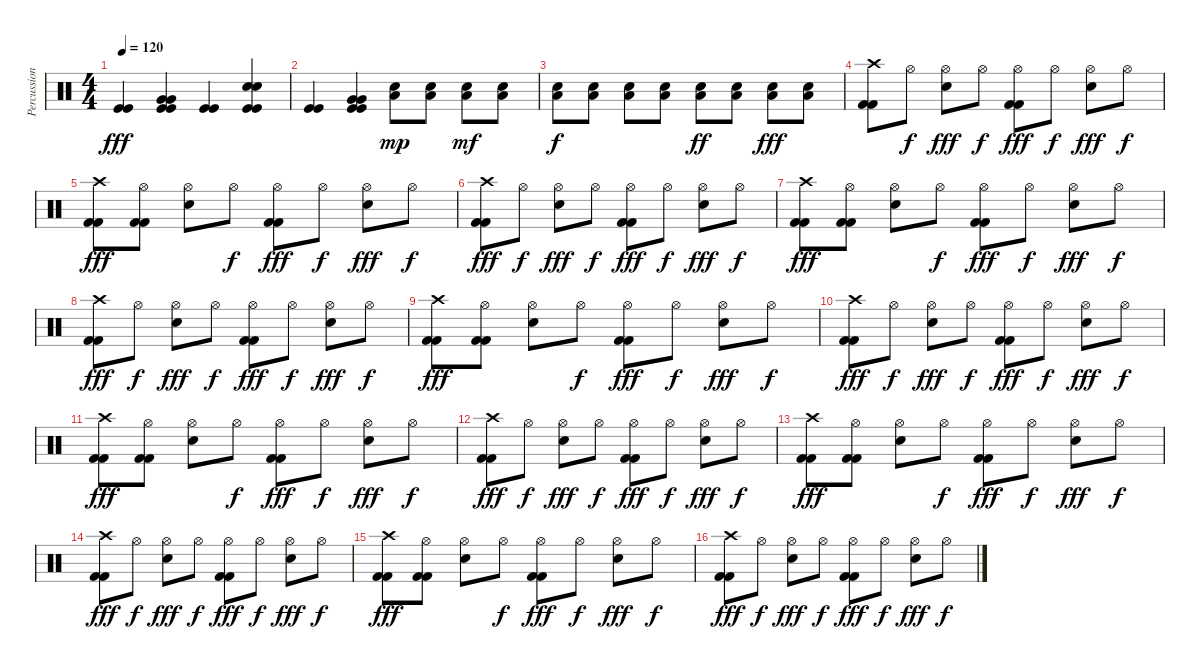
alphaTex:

\track ("Percussion" "Percussion") {instrument percussion}
\staff {score}
\articulation defaults
\ts (4 4)
\tempo 120
\clef neutral
\ks c
("Kick (hit)" "Kick (hit)").4{dy fff} ("Kick (hit)" "Kick (hit)" "Very Low Tom (hit)" "Very Low Tom (hit)").4 ("Kick (hit)" "Kick (hit)").4 ("Kick (hit)" "Kick (hit)" "Snare (hit) 2" "Snare (hit) 2").4 |
("Kick (hit)" "Kick (hit)").4 ("Kick (hit)" "Kick (hit)" "Very Low Tom (hit)" "Very Low Tom (hit)").4 ("Snare (hit) 2" "Low Floor Tom (hit)").8{dy mp} ("Snare (hit) 2" "Low Floor Tom (hit)").8 ("Snare (hit) 2" "Low Floor Tom (hit)").8{dy mf} ("Snare (hit) 2" "Low Floor Tom (hit)").8 |
("Snare (hit) 2" "Low Floor Tom (hit)").8{dy f} ("Snare (hit) 2" "Low Floor Tom (hit)").8 ("Snare (hit) 2" "Low Floor Tom (hit)").8 ("Snare (hit) 2" "Low Floor Tom (hit)").8 ("Snare (hit) 2" "Low Floor Tom (hit)").8{dy ff} ("Snare (hit) 2" "Low Floor Tom (hit)").8 ("Snare (hit) 2" "Low Floor Tom (hit)").8{dy fff} ("Snare (hit) 2" "Low Floor Tom (hit)").8 |
("Crash high (hit)" "Kick (hit) 2" "Kick (hit) 2").8 "Hi-Hat (open)".8{dy f} ("Hi-Hat (open)" "Snare (hit) 2").8{dy fff} "Hi-Hat (open)".8{dy f} ("Hi-Hat (open)" "Kick (hit) 2" "Kick (hit) 2").8{dy fff} "Hi-Hat (open)".8{dy f} ("Hi-Hat (open)" "Snare (hit) 2").8{dy fff} "Hi-Hat (open)".8{dy f} |
("Crash high (hit)" "Kick (hit) 2" "Kick (hit) 2").8{dy fff} ("Hi-Hat (open)" "Kick (hit) 2" "Kick (hit) 2").8 ("Hi-Hat (open)" "Snare (hit) 2").8 "Hi-Hat (open)".8{dy f} ("Hi-Hat (open)" "Kick (hit) 2" "Kick (hit) 2").8{dy fff} "Hi-Hat (open)".8{dy f} ("Hi-Hat (open)" "Snare (hit) 2").8{dy fff} "Hi-Hat (open)".8{dy f} |
("Crash high (hit)" "Kick (hit) 2" "Kick (hit) 2").8{dy fff} "Hi-Hat (open)".8{dy f} ("Hi-Hat (open)" "Snare (hit) 2").8{dy fff} "Hi-Hat (open)".8{dy f} ("Hi-Hat (open)" "Kick (hit) 2" "Kick (hit) 2").8{dy fff} "Hi-Hat (open)".8{dy f} ("Hi-Hat (open)" "Snare (hit) 2").8{dy fff} "Hi-Hat (open)".8{dy f} |
("Crash high (hit)" "Kick (hit) 2" "Kick (hit) 2").8{dy fff} ("Hi-Hat (open)" "Kick (hit) 2" "Kick (hit) 2").8 ("Hi-Hat (open)" "Snare (hit) 2").8 "Hi-Hat (open)".8{dy f} ("Hi-Hat (open)" "Kick (hit) 2" "Kick (hit) 2").8{dy fff} "Hi-Hat (open)".8{dy f} ("Hi-Hat (open)" "Snare (hit) 2").8{dy fff} "Hi-Hat (open)".8{dy f} |
("Crash high (hit)" "Kick (hit) 2" "Kick (hit) 2").8{dy fff} "Hi-Hat (open)".8{dy f} ("Hi-Hat (open)" "Snare (hit) 2").8{dy fff} "Hi-Hat (open)".8{dy f} ("Hi-Hat (open)" "Kick (hit) 2" "Kick (hit) 2").8{dy fff} "Hi-Hat (open)".8{dy f} ("Hi-Hat (open)" "Snare (hit) 2").8{dy fff} "Hi-Hat (open)".8{dy f} |
("Crash high (hit)" "Kick (hit) 2" "Kick (hit) 2").8{dy fff} ("Hi-Hat (open)" "Kick (hit) 2" "Kick (hit) 2").8 ("Hi-Hat (open)" "Snare (hit) 2").8 "Hi-Hat (open)".8{dy f} ("Hi-Hat (open)" "Kick (hit) 2" "Kick (hit) 2").8{dy fff} "Hi-Hat (open)".8{dy f} ("Hi-Hat (open)" "Snare (hit) 2").8{dy fff} "Hi-Hat (open)".8{dy f} |
("Crash high (hit)" "Kick (hit) 2" "Kick (hit) 2").8{dy fff} "Hi-Hat (open)".8{dy f} ("Hi-Hat (open)" "Snare (hit) 2").8{dy fff} "Hi-Hat (open)".8{dy f} ("Hi-Hat (open)" "Kick (hit) 2" "Kick (hit) 2").8{dy fff} "Hi-Hat (open)".8{dy f} ("Hi-Hat (open)" "Snare (hit) 2").8{dy fff} "Hi-Hat (open)".8{dy f} |
("Crash high (hit)" "Kick (hit) 2" "Kick (hit) 2").8{dy fff} ("Hi-Hat (open)" "Kick (hit) 2" "Kick (hit) 2").8 ("Hi-Hat (open)" "Snare (hit) 2").8 "Hi-Hat (open)".8{dy f} ("Hi-Hat (open)" "Kick (hit) 2" "Kick (hit) 2").8{dy fff} "Hi-Hat (open)".8{dy f} ("Hi-Hat (open)" "Snare (hit) 2").8{dy fff} "Hi-Hat (open)".8{dy f} |
("Crash high (hit)" "Kick (hit) 2" "Kick (hit) 2").8{dy fff} "Hi-Hat (open)".8{dy f} ("Hi-Hat (open)" "Snare (hit) 2").8{dy fff} "Hi-Hat (open)".8{dy f} ("Hi-Hat (open)" "Kick (hit) 2" "Kick (hit) 2").8{dy fff} "Hi-Hat (open)".8{dy f} ("Hi-Hat (open)" "Snare (hit) 2").8{dy fff} "Hi-Hat (open)".8{dy f} |
("Crash high (hit)" "Kick (hit) 2" "Kick (hit) 2").8{dy fff} ("Hi-Hat (open)" "Kick (hit) 2" "Kick (hit) 2").8 ("Hi-Hat (open)" "Snare (hit) 2").8 "Hi-Hat (open)".8{dy f} ("Hi-Hat (open)" "Kick (hit) 2" "Kick (hit) 2").8{dy fff} "Hi-Hat (open)".8{dy f} ("Hi-Hat (open)" "Snare (hit) 2").8{dy fff} "Hi-Hat (open)".8{dy f} |
("Crash high (hit)" "Kick (hit) 2" "Kick (hit) 2").8{dy fff} "Hi-Hat (open)".8{dy f} ("Hi-Hat (open)" "Snare (hit) 2").8{dy fff} "Hi-Hat (open)".8{dy f} ("Hi-Hat (open)" "Kick (hit) 2" "Kick (hit) 2").8{dy fff} "Hi-Hat (open)".8{dy f} ("Hi-Hat (open)" "Snare (hit) 2").8{dy fff} "Hi-Hat (open)".8{dy f} |
("Crash high (hit)" "Kick (hit) 2" "Kick (hit) 2").8{dy fff} ("Hi-Hat (open)" "Kick (hit) 2" "Kick (hit) 2").8 ("Hi-Hat (open)" "Snare (hit) 2").8 "Hi-Hat (open)".8{dy f} ("Hi-Hat (open)" "Kick (hit) 2" "Kick (hit) 2").8{dy fff} "Hi-Hat (open)".8{dy f} ("Hi-Hat (open)" "Snare (hit) 2").8{dy fff} "Hi-Hat (open)".8{dy f} |
("Crash high (hit)" "Kick (hit) 2" "Kick (hit) 2").8{dy fff} "Hi-Hat (open)".8{dy f} ("Hi-Hat (open)" "Snare (hit) 2").8{dy fff} "Hi-Hat (open)".8{dy f} ("Hi-Hat (open)" "Kick (hit) 2" "Kick (hit) 2").8{dy fff} "Hi-Hat (open)".8{dy f} ("Hi-Hat (open)" "Snare (hit) 2").8{dy fff} "Hi-Hat (open)".8{dy f}
